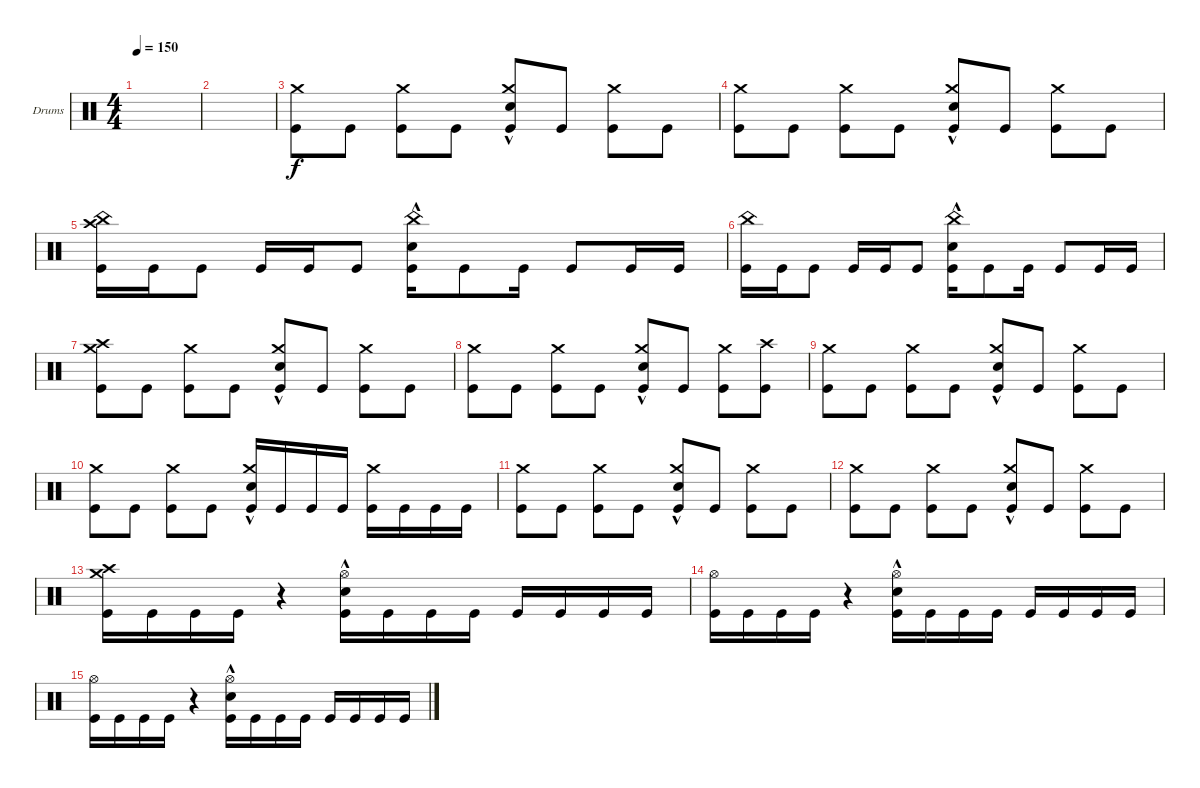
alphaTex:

\bracketExtendMode groupsimilarinstruments
\firstSystemTrackNameOrientation horizontal
\otherSystemsTrackNameOrientation horizontal
\track ("Drumkit" "Drums") {instrument percussion}
\staff {score}
\articulation defaults
\ts (4 4)
\tempo 150
\clef neutral
\ks aminor
|
|
("Kick (hit)" "Crash medium (hit)").8 "Kick (hit)".8 ("Kick (hit)" "Crash medium (hit)").8 "Kick (hit)".8 ("Kick (hit)" "Crash medium (hit)" "Snare (hit) 2"{hac}).8 "Kick (hit)".8 ("Kick (hit)" "Crash medium (hit)").8 "Kick (hit)".8 |
("Kick (hit)" "Crash medium (hit)").8 "Kick (hit)".8 ("Kick (hit)" "Crash medium (hit)").8 "Kick (hit)".8 ("Kick (hit)" "Crash medium (hit)" "Snare (hit) 2"{hac}).8 "Kick (hit)".8 ("Kick (hit)" "Crash medium (hit)").8 "Kick (hit)".8 |
("Kick (hit)" "China (hit)" "Crash high (hit)").16 "Kick (hit)".16 "Kick (hit)".8 "Kick (hit)".16 "Kick (hit)".16 "Kick (hit)".8 ("Kick (hit)" "China (hit)" "Snare (hit) 2"{hac}).16 "Kick (hit)".8 "Kick (hit)".16 "Kick (hit)".8 "Kick (hit)".16 "Kick (hit)".16 |
("Kick (hit)" "China (hit)").16 "Kick (hit)".16 "Kick (hit)".8 "Kick (hit)".16 "Kick (hit)".16 "Kick (hit)".8 ("Kick (hit)" "China (hit)" "Snare (hit) 2"{hac}).16 "Kick (hit)".8 "Kick (hit)".16 "Kick (hit)".8 "Kick (hit)".16 "Kick (hit)".16 |
("Kick (hit)" "Crash medium (hit)" "Crash high (hit)").8 "Kick (hit)".8 ("Kick (hit)" "Crash medium (hit)").8 "Kick (hit)".8 ("Kick (hit)" "Crash medium (hit)" "Snare (hit) 2"{hac}).8 "Kick (hit)".8 ("Kick (hit)" "Crash medium (hit)").8 "Kick (hit)".8 |
("Kick (hit)" "Crash medium (hit)").8 "Kick (hit)".8 ("Kick (hit)" "Crash medium (hit)").8 "Kick (hit)".8 ("Kick (hit)" "Crash medium (hit)" "Snare (hit) 2"{hac}).8 "Kick (hit)".8 ("Kick (hit)" "Crash medium (hit)").8 ("Kick (hit)" "Crash high (hit)").8 |
("Kick (hit)" "Crash medium (hit)").8 "Kick (hit)".8 ("Kick (hit)" "Crash medium (hit)").8 "Kick (hit)".8 ("Kick (hit)" "Crash medium (hit)" "Snare (hit) 2"{hac}).8 "Kick (hit)".8 ("Kick (hit)" "Crash medium (hit)").8 "Kick (hit)".8 |
("Kick (hit)" "Crash medium (hit)").8 "Kick (hit)".8 ("Kick (hit)" "Crash medium (hit)").8 "Kick (hit)".8 ("Kick (hit)" "Crash medium (hit)" "Snare (hit) 2"{hac}).16 "Kick (hit)".16 "Kick (hit)".16 "Kick (hit)".16 ("Kick (hit)" "Crash medium (hit)").16 "Kick (hit)".16 "Kick (hit)".16 "Kick (hit)".16 |
("Kick (hit)" "Crash medium (hit)").8 "Kick (hit)".8 ("Kick (hit)" "Crash medium (hit)").8 "Kick (hit)".8 ("Kick (hit)" "Crash medium (hit)" "Snare (hit) 2"{hac}).8 "Kick (hit)".8 ("Kick (hit)" "Crash medium (hit)").8 "Kick (hit)".8 |
("Kick (hit)" "Crash medium (hit)").8 "Kick (hit)".8 ("Kick (hit)" "Crash medium (hit)").8 "Kick (hit)".8 ("Kick (hit)" "Crash medium (hit)" "Snare (hit) 2"{hac}).8 "Kick (hit)".8 ("Kick (hit)" "Crash medium (hit)").8 "Kick (hit)".8 |
("Kick (hit)" "Crash medium (hit)" "Crash high (hit)").16 "Kick (hit)".16 "Kick (hit)".16 "Kick (hit)".16 r.4 ("Kick (hit)" "Snare (hit) 2"{hac} "Hi-Hat (open)").16 "Kick (hit)".16 "Kick (hit)".16 "Kick (hit)".16 "Kick (hit)".16 "Kick (hit)".16 "Kick (hit)".16 "Kick (hit)".16 |
("Kick (hit)" "Hi-Hat (open)").16 "Kick (hit)".16 "Kick (hit)".16 "Kick (hit)".16 r.4 ("Kick (hit)" "Snare (hit) 2"{hac} "Hi-Hat (open)").16 "Kick (hit)".16 "Kick (hit)".16 "Kick (hit)".16 "Kick (hit)".16 "Kick (hit)".16 "Kick (hit)".16 "Kick (hit)".16 |
("Kick (hit)" "Hi-Hat (open)").16 "Kick (hit)".16 "Kick (hit)".16 "Kick (hit)".16 r.4 ("Kick (hit)" "Snare (hit) 2"{hac} "Hi-Hat (open)").16 "Kick (hit)".16 "Kick (hit)".16 "Kick (hit)".16 "Kick (hit)".16 "Kick (hit)".16 "Kick (hit)".16 "Kick (hit)".16
